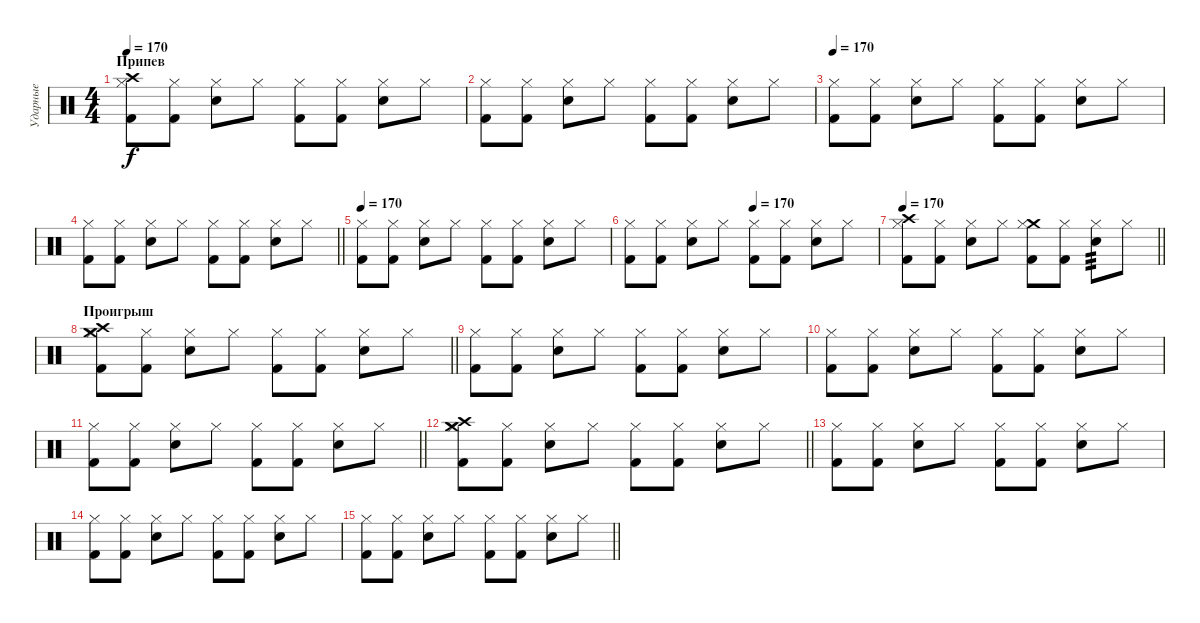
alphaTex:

\track ("Ударные" "Ударные") {instrument percussion}
\staff {score}
\articulation defaults
\ts (4 4)
\section ("" "Припев")
\tempo 170
\clef neutral
\ks c
("Crash high (hit)" "Kick (hit) 2" "Hi-Hat (closed)").8{dy f} ("Kick (hit) 2" "Hi-Hat (closed)").8 ("Snare (hit) 2" "Hi-Hat (closed)").8 "Hi-Hat (closed)".8 ("Kick (hit) 2" "Hi-Hat (closed)").8 ("Kick (hit) 2" "Hi-Hat (closed)").8 ("Snare (hit) 2" "Hi-Hat (closed)").8 "Hi-Hat (closed)".8 |
("Kick (hit) 2" "Hi-Hat (closed)").8 ("Kick (hit) 2" "Hi-Hat (closed)").8 ("Snare (hit) 2" "Hi-Hat (closed)").8 "Hi-Hat (closed)".8 ("Kick (hit) 2" "Hi-Hat (closed)").8 ("Kick (hit) 2" "Hi-Hat (closed)").8 ("Snare (hit) 2" "Hi-Hat (closed)").8 "Hi-Hat (closed)".8 |
\tempo 170
("Kick (hit) 2" "Hi-Hat (closed)").8 ("Kick (hit) 2" "Hi-Hat (closed)").8 ("Snare (hit) 2" "Hi-Hat (closed)").8 "Hi-Hat (closed)".8 ("Kick (hit) 2" "Hi-Hat (closed)").8 ("Kick (hit) 2" "Hi-Hat (closed)").8 ("Snare (hit) 2" "Hi-Hat (closed)").8 "Hi-Hat (closed)".8 |
\barLineRight lightlight
("Kick (hit) 2" "Hi-Hat (closed)").8 ("Kick (hit) 2" "Hi-Hat (closed)").8 ("Snare (hit) 2" "Hi-Hat (closed)").8 "Hi-Hat (closed)".8 ("Kick (hit) 2" "Hi-Hat (closed)").8 ("Kick (hit) 2" "Hi-Hat (closed)").8 ("Snare (hit) 2" "Hi-Hat (closed)").8 "Hi-Hat (closed)".8 |
\tempo 170
("Kick (hit) 2" "Hi-Hat (closed)").8 ("Kick (hit) 2" "Hi-Hat (closed)").8 ("Snare (hit) 2" "Hi-Hat (closed)").8 "Hi-Hat (closed)".8 ("Kick (hit) 2" "Hi-Hat (closed)").8 ("Kick (hit) 2" "Hi-Hat (closed)").8 ("Snare (hit) 2" "Hi-Hat (closed)").8 "Hi-Hat (closed)".8 |
\tempo (170 0.5)
("Kick (hit) 2" "Hi-Hat (closed)").8 ("Kick (hit) 2" "Hi-Hat (closed)").8 ("Snare (hit) 2" "Hi-Hat (closed)").8 "Hi-Hat (closed)".8 ("Kick (hit) 2" "Hi-Hat (closed)").8 ("Kick (hit) 2" "Hi-Hat (closed)").8 ("Snare (hit) 2" "Hi-Hat (closed)").8 "Hi-Hat (closed)".8 |
\tempo 170
\barLineRight lightlight
("Crash high (hit)" "Kick (hit) 2" "Hi-Hat (closed)").8 ("Kick (hit) 2" "Hi-Hat (closed)").8 ("Snare (hit) 2" "Hi-Hat (closed)").8 "Hi-Hat (closed)".8 ("Crash medium (hit)" "Kick (hit) 2" "Hi-Hat (closed)").8 ("Kick (hit) 2" "Hi-Hat (closed)").8 ("Snare (hit) 2" "Hi-Hat (closed)").8{tp 3} "Hi-Hat (closed)".8 |
\section ("" "Проигрыш")
\barLineRight lightlight
("Crash medium (hit)" "Crash high (hit)" "Kick (hit) 2" "Hi-Hat (closed)").8 ("Kick (hit) 2" "Hi-Hat (closed)").8 ("Snare (hit) 2" "Hi-Hat (closed)").8 "Hi-Hat (closed)".8 ("Kick (hit) 2" "Hi-Hat (closed)").8 ("Kick (hit) 2" "Hi-Hat (closed)").8 ("Snare (hit) 2" "Hi-Hat (closed)").8 "Hi-Hat (closed)".8 |
("Kick (hit) 2" "Hi-Hat (closed)").8 ("Kick (hit) 2" "Hi-Hat (closed)").8 ("Snare (hit) 2" "Hi-Hat (closed)").8 "Hi-Hat (closed)".8 ("Kick (hit) 2" "Hi-Hat (closed)").8 ("Kick (hit) 2" "Hi-Hat (closed)").8 ("Snare (hit) 2" "Hi-Hat (closed)").8 "Hi-Hat (closed)".8 |
("Kick (hit) 2" "Hi-Hat (closed)").8 ("Kick (hit) 2" "Hi-Hat (closed)").8 ("Snare (hit) 2" "Hi-Hat (closed)").8 "Hi-Hat (closed)".8 ("Kick (hit) 2" "Hi-Hat (closed)").8 ("Kick (hit) 2" "Hi-Hat (closed)").8 ("Snare (hit) 2" "Hi-Hat (closed)").8 "Hi-Hat (closed)".8 |
\barLineRight lightlight
("Kick (hit) 2" "Hi-Hat (closed)").8 ("Kick (hit) 2" "Hi-Hat (closed)").8 ("Snare (hit) 2" "Hi-Hat (closed)").8 "Hi-Hat (closed)".8 ("Kick (hit) 2" "Hi-Hat (closed)").8 ("Kick (hit) 2" "Hi-Hat (closed)").8 ("Snare (hit) 2" "Hi-Hat (closed)").8 "Hi-Hat (closed)".8 |
\barLineRight lightlight
("Crash medium (hit)" "Crash high (hit)" "Kick (hit) 2" "Hi-Hat (closed)").8 ("Kick (hit) 2" "Hi-Hat (closed)").8 ("Snare (hit) 2" "Hi-Hat (closed)").8 "Hi-Hat (closed)".8 ("Kick (hit) 2" "Hi-Hat (closed)").8 ("Kick (hit) 2" "Hi-Hat (closed)").8 ("Snare (hit) 2" "Hi-Hat (closed)").8 "Hi-Hat (closed)".8 |
("Kick (hit) 2" "Hi-Hat (closed)").8 ("Kick (hit) 2" "Hi-Hat (closed)").8 ("Snare (hit) 2" "Hi-Hat (closed)").8 "Hi-Hat (closed)".8 ("Kick (hit) 2" "Hi-Hat (closed)").8 ("Kick (hit) 2" "Hi-Hat (closed)").8 ("Snare (hit) 2" "Hi-Hat (closed)").8 "Hi-Hat (closed)".8 |
("Kick (hit) 2" "Hi-Hat (closed)").8 ("Kick (hit) 2" "Hi-Hat (closed)").8 ("Snare (hit) 2" "Hi-Hat (closed)").8 "Hi-Hat (closed)".8 ("Kick (hit) 2" "Hi-Hat (closed)").8 ("Kick (hit) 2" "Hi-Hat (closed)").8 ("Snare (hit) 2" "Hi-Hat (closed)").8 "Hi-Hat (closed)".8 |
\barLineRight lightlight
("Kick (hit) 2" "Hi-Hat (closed)").8 ("Kick (hit) 2" "Hi-Hat (closed)").8 ("Snare (hit) 2" "Hi-Hat (closed)").8 "Hi-Hat (closed)".8 ("Kick (hit) 2" "Hi-Hat (closed)").8 ("Kick (hit) 2" "Hi-Hat (closed)").8 ("Snare (hit) 2" "Hi-Hat (closed)").8 "Hi-Hat (closed)".8
